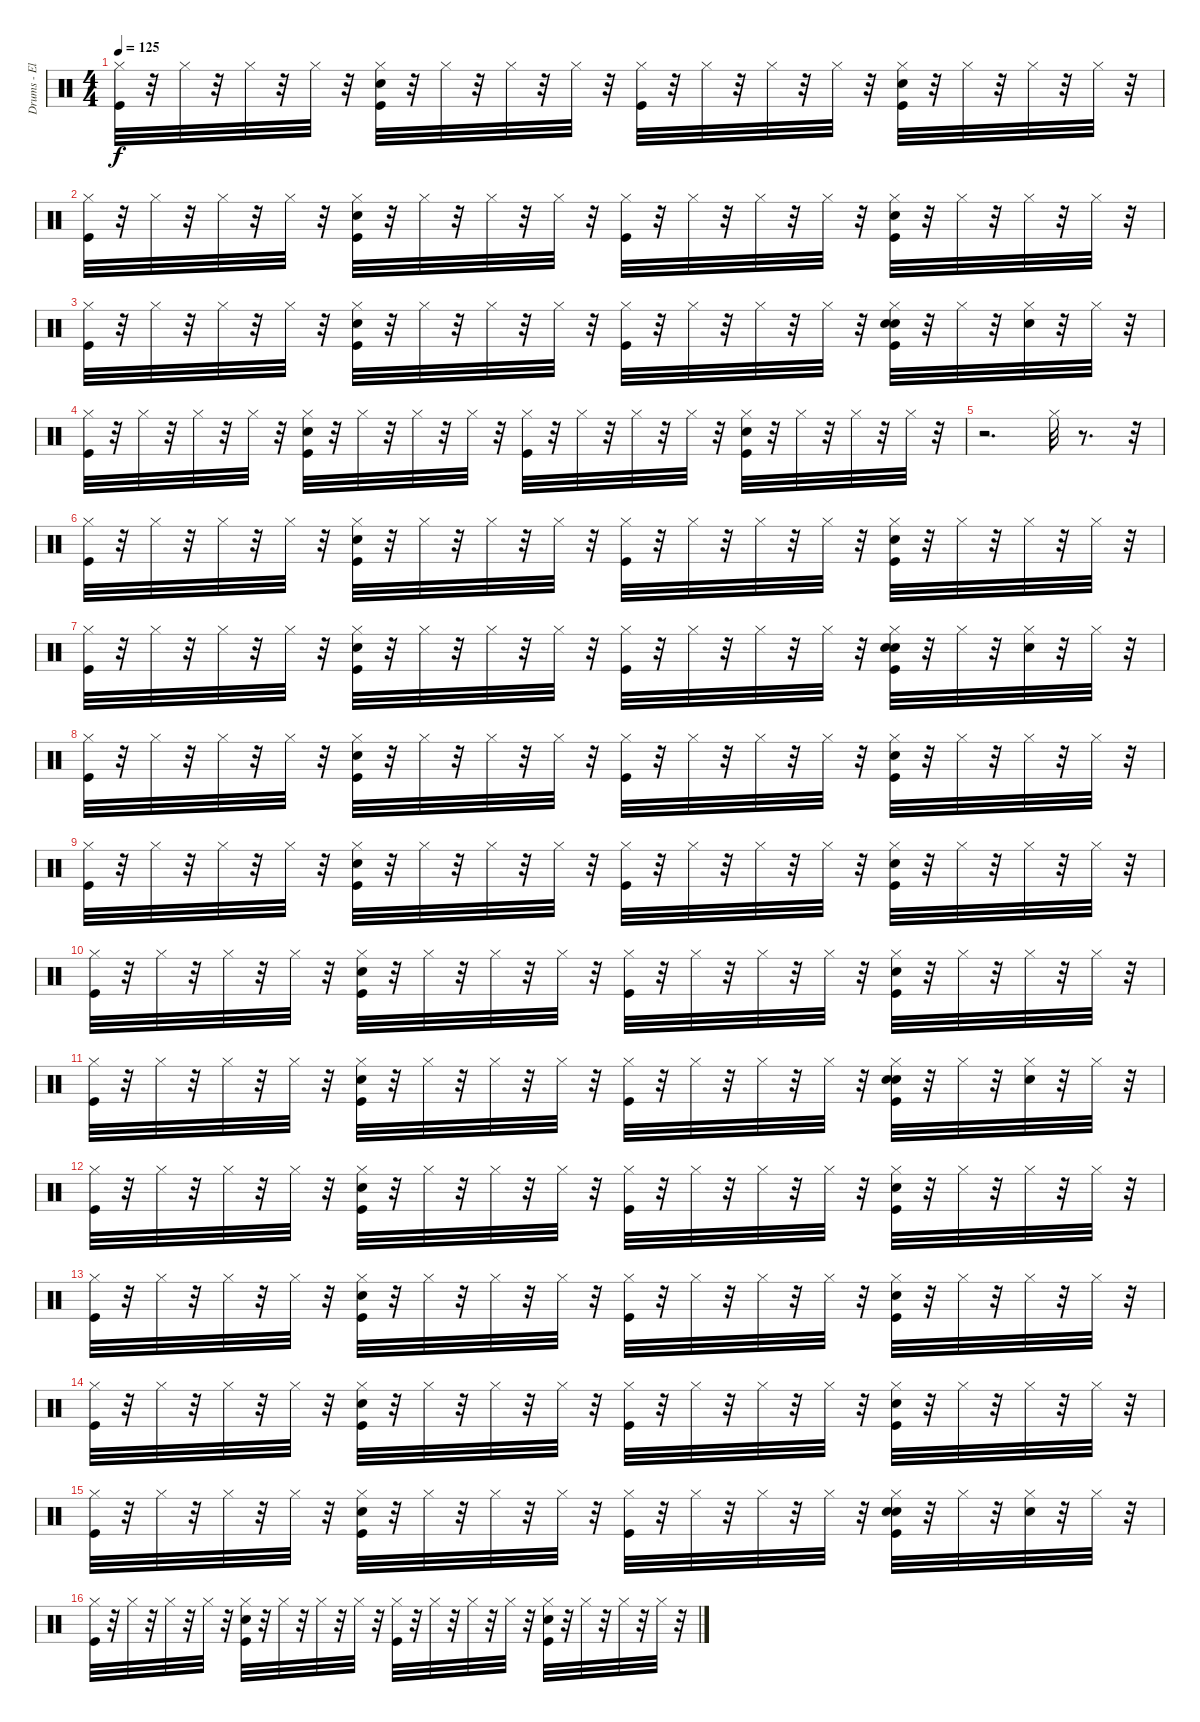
\track ("Drums - El" "Drums - El") {instrument percussion}
\staff {score}
\articulation defaults
\ts (4 4)
\tempo 125
\clef neutral
\ks c
("Kick (hit)" "Hi-Hat (closed)").32{dy f} r.32 "Hi-Hat (closed)".32 r.32 "Hi-Hat (closed)".32 r.32 "Hi-Hat (closed)".32 r.32 ("Kick (hit)" "Electric Snare (hit)" "Hi-Hat (closed)").32 r.32 "Hi-Hat (closed)".32 r.32 "Hi-Hat (closed)".32 r.32 "Hi-Hat (closed)".32 r.32 ("Kick (hit)" "Hi-Hat (closed)").32 r.32 "Hi-Hat (closed)".32 r.32 "Hi-Hat (closed)".32 r.32 "Hi-Hat (closed)".32 r.32 ("Kick (hit)" "Electric Snare (hit)" "Hi-Hat (closed)").32 r.32 "Hi-Hat (closed)".32 r.32 "Hi-Hat (closed)".32 r.32 "Hi-Hat (closed)".32 r.32 |
("Kick (hit)" "Hi-Hat (closed)").32 r.32 "Hi-Hat (closed)".32 r.32 "Hi-Hat (closed)".32 r.32 "Hi-Hat (closed)".32 r.32 ("Kick (hit)" "Electric Snare (hit)" "Hi-Hat (closed)").32 r.32 "Hi-Hat (closed)".32 r.32 "Hi-Hat (closed)".32 r.32 "Hi-Hat (closed)".32 r.32 ("Kick (hit)" "Hi-Hat (closed)").32 r.32 "Hi-Hat (closed)".32 r.32 "Hi-Hat (closed)".32 r.32 "Hi-Hat (closed)".32 r.32 ("Kick (hit)" "Electric Snare (hit)" "Hi-Hat (closed)").32 r.32 "Hi-Hat (closed)".32 r.32 "Hi-Hat (closed)".32 r.32 "Hi-Hat (closed)".32 r.32 |
("Kick (hit)" "Hi-Hat (closed)").32 r.32 "Hi-Hat (closed)".32 r.32 "Hi-Hat (closed)".32 r.32 "Hi-Hat (closed)".32 r.32 ("Kick (hit)" "Electric Snare (hit)" "Hi-Hat (closed)").32 r.32 "Hi-Hat (closed)".32 r.32 "Hi-Hat (closed)".32 r.32 "Hi-Hat (closed)".32 r.32 ("Kick (hit)" "Hi-Hat (closed)").32 r.32 "Hi-Hat (closed)".32 r.32 "Hi-Hat (closed)".32 r.32 "Hi-Hat (closed)".32 r.32 ("Kick (hit)" "Electric Snare (hit)" "Hand Clap (hit)" "Hi-Hat (closed)").32 r.32 "Hi-Hat (closed)".32 r.32 ("Hand Clap (hit)" "Hi-Hat (closed)").32 r.32 "Hi-Hat (closed)".32 r.32 |
("Kick (hit)" "Hi-Hat (closed)").32 r.32 "Hi-Hat (closed)".32 r.32 "Hi-Hat (closed)".32 r.32 "Hi-Hat (closed)".32 r.32 ("Kick (hit)" "Electric Snare (hit)" "Hi-Hat (closed)").32 r.32 "Hi-Hat (closed)".32 r.32 "Hi-Hat (closed)".32 r.32 "Hi-Hat (closed)".32 r.32 ("Kick (hit)" "Hi-Hat (closed)").32 r.32 "Hi-Hat (closed)".32 r.32 "Hi-Hat (closed)".32 r.32 "Hi-Hat (closed)".32 r.32 ("Kick (hit)" "Electric Snare (hit)" "Hi-Hat (closed)").32 r.32 "Hi-Hat (closed)".32 r.32 "Hi-Hat (closed)".32 r.32 "Hi-Hat (closed)".32 r.32 |
r.2{d} "Hi-Hat (closed)".32 r.8{d} r.32 |
("Kick (hit)" "Hi-Hat (closed)").32 r.32 "Hi-Hat (closed)".32 r.32 "Hi-Hat (closed)".32 r.32 "Hi-Hat (closed)".32 r.32 ("Kick (hit)" "Electric Snare (hit)" "Hi-Hat (closed)").32 r.32 "Hi-Hat (closed)".32 r.32 "Hi-Hat (closed)".32 r.32 "Hi-Hat (closed)".32 r.32 ("Kick (hit)" "Hi-Hat (closed)").32 r.32 "Hi-Hat (closed)".32 r.32 "Hi-Hat (closed)".32 r.32 "Hi-Hat (closed)".32 r.32 ("Kick (hit)" "Electric Snare (hit)" "Hi-Hat (closed)").32 r.32 "Hi-Hat (closed)".32 r.32 "Hi-Hat (closed)".32 r.32 "Hi-Hat (closed)".32 r.32 |
("Kick (hit)" "Hi-Hat (closed)").32 r.32 "Hi-Hat (closed)".32 r.32 "Hi-Hat (closed)".32 r.32 "Hi-Hat (closed)".32 r.32 ("Kick (hit)" "Electric Snare (hit)" "Hi-Hat (closed)").32 r.32 "Hi-Hat (closed)".32 r.32 "Hi-Hat (closed)".32 r.32 "Hi-Hat (closed)".32 r.32 ("Kick (hit)" "Hi-Hat (closed)").32 r.32 "Hi-Hat (closed)".32 r.32 "Hi-Hat (closed)".32 r.32 "Hi-Hat (closed)".32 r.32 ("Kick (hit)" "Electric Snare (hit)" "Hand Clap (hit)" "Hi-Hat (closed)").32 r.32 "Hi-Hat (closed)".32 r.32 ("Hand Clap (hit)" "Hi-Hat (closed)").32 r.32 "Hi-Hat (closed)".32 r.32 |
("Kick (hit)" "Hi-Hat (closed)").32 r.32 "Hi-Hat (closed)".32 r.32 "Hi-Hat (closed)".32 r.32 "Hi-Hat (closed)".32 r.32 ("Kick (hit)" "Electric Snare (hit)" "Hi-Hat (closed)").32 r.32 "Hi-Hat (closed)".32 r.32 "Hi-Hat (closed)".32 r.32 "Hi-Hat (closed)".32 r.32 ("Kick (hit)" "Hi-Hat (closed)").32 r.32 "Hi-Hat (closed)".32 r.32 "Hi-Hat (closed)".32 r.32 "Hi-Hat (closed)".32 r.32 ("Kick (hit)" "Electric Snare (hit)" "Hi-Hat (closed)").32 r.32 "Hi-Hat (closed)".32 r.32 "Hi-Hat (closed)".32 r.32 "Hi-Hat (closed)".32 r.32 |
("Kick (hit)" "Hi-Hat (closed)").32 r.32 "Hi-Hat (closed)".32 r.32 "Hi-Hat (closed)".32 r.32 "Hi-Hat (closed)".32 r.32 ("Kick (hit)" "Electric Snare (hit)" "Hi-Hat (closed)").32 r.32 "Hi-Hat (closed)".32 r.32 "Hi-Hat (closed)".32 r.32 "Hi-Hat (closed)".32 r.32 ("Kick (hit)" "Hi-Hat (closed)").32 r.32 "Hi-Hat (closed)".32 r.32 "Hi-Hat (closed)".32 r.32 "Hi-Hat (closed)".32 r.32 ("Kick (hit)" "Electric Snare (hit)" "Hi-Hat (closed)").32 r.32 "Hi-Hat (closed)".32 r.32 "Hi-Hat (closed)".32 r.32 "Hi-Hat (closed)".32 r.32 |
("Kick (hit)" "Hi-Hat (closed)").32 r.32 "Hi-Hat (closed)".32 r.32 "Hi-Hat (closed)".32 r.32 "Hi-Hat (closed)".32 r.32 ("Kick (hit)" "Electric Snare (hit)" "Hi-Hat (closed)").32 r.32 "Hi-Hat (closed)".32 r.32 "Hi-Hat (closed)".32 r.32 "Hi-Hat (closed)".32 r.32 ("Kick (hit)" "Hi-Hat (closed)").32 r.32 "Hi-Hat (closed)".32 r.32 "Hi-Hat (closed)".32 r.32 "Hi-Hat (closed)".32 r.32 ("Kick (hit)" "Electric Snare (hit)" "Hi-Hat (closed)").32 r.32 "Hi-Hat (closed)".32 r.32 "Hi-Hat (closed)".32 r.32 "Hi-Hat (closed)".32 r.32 |
("Kick (hit)" "Hi-Hat (closed)").32 r.32 "Hi-Hat (closed)".32 r.32 "Hi-Hat (closed)".32 r.32 "Hi-Hat (closed)".32 r.32 ("Kick (hit)" "Electric Snare (hit)" "Hi-Hat (closed)").32 r.32 "Hi-Hat (closed)".32 r.32 "Hi-Hat (closed)".32 r.32 "Hi-Hat (closed)".32 r.32 ("Kick (hit)" "Hi-Hat (closed)").32 r.32 "Hi-Hat (closed)".32 r.32 "Hi-Hat (closed)".32 r.32 "Hi-Hat (closed)".32 r.32 ("Kick (hit)" "Electric Snare (hit)" "Hand Clap (hit)" "Hi-Hat (closed)").32 r.32 "Hi-Hat (closed)".32 r.32 ("Hand Clap (hit)" "Hi-Hat (closed)").32 r.32 "Hi-Hat (closed)".32 r.32 |
("Kick (hit)" "Hi-Hat (closed)").32 r.32 "Hi-Hat (closed)".32 r.32 "Hi-Hat (closed)".32 r.32 "Hi-Hat (closed)".32 r.32 ("Kick (hit)" "Electric Snare (hit)" "Hi-Hat (closed)").32 r.32 "Hi-Hat (closed)".32 r.32 "Hi-Hat (closed)".32 r.32 "Hi-Hat (closed)".32 r.32 ("Kick (hit)" "Hi-Hat (closed)").32 r.32 "Hi-Hat (closed)".32 r.32 "Hi-Hat (closed)".32 r.32 "Hi-Hat (closed)".32 r.32 ("Kick (hit)" "Electric Snare (hit)" "Hi-Hat (closed)").32 r.32 "Hi-Hat (closed)".32 r.32 "Hi-Hat (closed)".32 r.32 "Hi-Hat (closed)".32 r.32 |
("Kick (hit)" "Hi-Hat (closed)").32 r.32 "Hi-Hat (closed)".32 r.32 "Hi-Hat (closed)".32 r.32 "Hi-Hat (closed)".32 r.32 ("Kick (hit)" "Electric Snare (hit)" "Hi-Hat (closed)").32 r.32 "Hi-Hat (closed)".32 r.32 "Hi-Hat (closed)".32 r.32 "Hi-Hat (closed)".32 r.32 ("Kick (hit)" "Hi-Hat (closed)").32 r.32 "Hi-Hat (closed)".32 r.32 "Hi-Hat (closed)".32 r.32 "Hi-Hat (closed)".32 r.32 ("Kick (hit)" "Electric Snare (hit)" "Hi-Hat (closed)").32 r.32 "Hi-Hat (closed)".32 r.32 "Hi-Hat (closed)".32 r.32 "Hi-Hat (closed)".32 r.32 |
("Kick (hit)" "Hi-Hat (closed)").32 r.32 "Hi-Hat (closed)".32 r.32 "Hi-Hat (closed)".32 r.32 "Hi-Hat (closed)".32 r.32 ("Kick (hit)" "Electric Snare (hit)" "Hi-Hat (closed)").32 r.32 "Hi-Hat (closed)".32 r.32 "Hi-Hat (closed)".32 r.32 "Hi-Hat (closed)".32 r.32 ("Kick (hit)" "Hi-Hat (closed)").32 r.32 "Hi-Hat (closed)".32 r.32 "Hi-Hat (closed)".32 r.32 "Hi-Hat (closed)".32 r.32 ("Kick (hit)" "Electric Snare (hit)" "Hi-Hat (closed)").32 r.32 "Hi-Hat (closed)".32 r.32 "Hi-Hat (closed)".32 r.32 "Hi-Hat (closed)".32 r.32 |
("Kick (hit)" "Hi-Hat (closed)").32 r.32 "Hi-Hat (closed)".32 r.32 "Hi-Hat (closed)".32 r.32 "Hi-Hat (closed)".32 r.32 ("Kick (hit)" "Electric Snare (hit)" "Hi-Hat (closed)").32 r.32 "Hi-Hat (closed)".32 r.32 "Hi-Hat (closed)".32 r.32 "Hi-Hat (closed)".32 r.32 ("Kick (hit)" "Hi-Hat (closed)").32 r.32 "Hi-Hat (closed)".32 r.32 "Hi-Hat (closed)".32 r.32 "Hi-Hat (closed)".32 r.32 ("Kick (hit)" "Electric Snare (hit)" "Hand Clap (hit)" "Hi-Hat (closed)").32 r.32 "Hi-Hat (closed)".32 r.32 ("Hand Clap (hit)" "Hi-Hat (closed)").32 r.32 "Hi-Hat (closed)".32 r.32 |
("Kick (hit)" "Hi-Hat (closed)").32 r.32 "Hi-Hat (closed)".32 r.32 "Hi-Hat (closed)".32 r.32 "Hi-Hat (closed)".32 r.32 ("Kick (hit)" "Electric Snare (hit)" "Hi-Hat (closed)").32 r.32 "Hi-Hat (closed)".32 r.32 "Hi-Hat (closed)".32 r.32 "Hi-Hat (closed)".32 r.32 ("Kick (hit)" "Hi-Hat (closed)").32 r.32 "Hi-Hat (closed)".32 r.32 "Hi-Hat (closed)".32 r.32 "Hi-Hat (closed)".32 r.32 ("Kick (hit)" "Electric Snare (hit)" "Hi-Hat (closed)").32 r.32 "Hi-Hat (closed)".32 r.32 "Hi-Hat (closed)".32 r.32 "Hi-Hat (closed)".32 r.32
